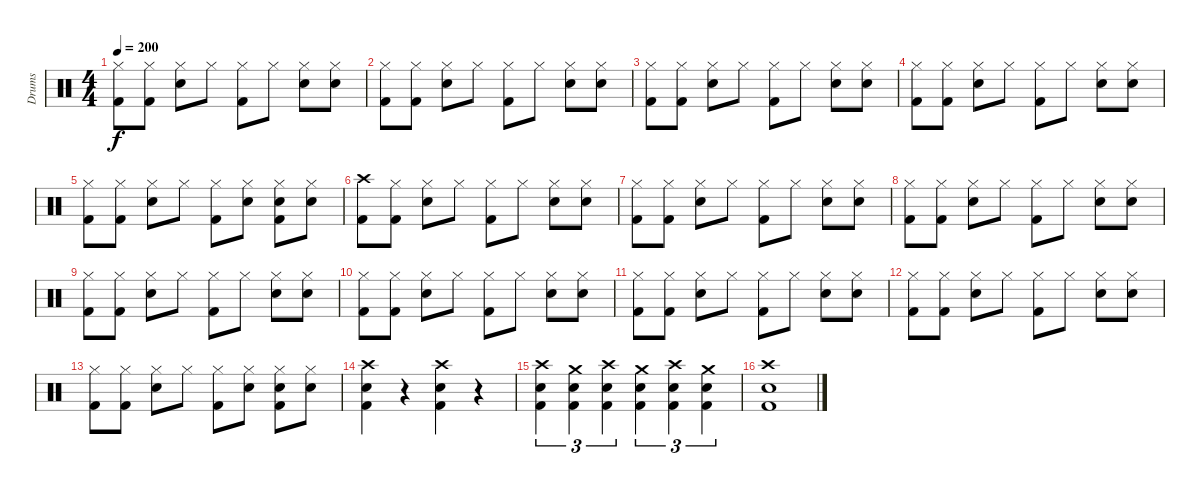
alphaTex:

\track ("Drums" "Drums") {instrument percussion}
\staff {score}
\articulation defaults
\ts (4 4)
\tempo 200
\clef neutral
\ks c
("Hi-Hat (closed)" "Kick (hit) 2").8{dy f} ("Hi-Hat (closed)" "Kick (hit) 2").8 ("Hi-Hat (closed)" "Snare (hit) 2").8 "Hi-Hat (closed)".8 ("Hi-Hat (closed)" "Kick (hit) 2").8 "Hi-Hat (closed)".8 ("Hi-Hat (closed)" "Snare (hit) 2").8 ("Hi-Hat (closed)" "Snare (hit) 2").8 |
("Hi-Hat (closed)" "Kick (hit) 2").8 ("Hi-Hat (closed)" "Kick (hit) 2").8 ("Hi-Hat (closed)" "Snare (hit) 2").8 "Hi-Hat (closed)".8 ("Hi-Hat (closed)" "Kick (hit) 2").8 "Hi-Hat (closed)".8 ("Hi-Hat (closed)" "Snare (hit) 2").8 ("Hi-Hat (closed)" "Snare (hit) 2").8 |
("Hi-Hat (closed)" "Kick (hit) 2").8 ("Hi-Hat (closed)" "Kick (hit) 2").8 ("Hi-Hat (closed)" "Snare (hit) 2").8 "Hi-Hat (closed)".8 ("Hi-Hat (closed)" "Kick (hit) 2").8 "Hi-Hat (closed)".8 ("Hi-Hat (closed)" "Snare (hit) 2").8 ("Hi-Hat (closed)" "Snare (hit) 2").8 |
("Hi-Hat (closed)" "Kick (hit) 2").8 ("Hi-Hat (closed)" "Kick (hit) 2").8 ("Hi-Hat (closed)" "Snare (hit) 2").8 "Hi-Hat (closed)".8 ("Hi-Hat (closed)" "Kick (hit) 2").8 "Hi-Hat (closed)".8 ("Hi-Hat (closed)" "Snare (hit) 2").8 ("Hi-Hat (closed)" "Snare (hit) 2").8 |
("Hi-Hat (closed)" "Kick (hit) 2").8 ("Hi-Hat (closed)" "Kick (hit) 2").8 ("Hi-Hat (closed)" "Snare (hit) 2").8 "Hi-Hat (closed)".8 ("Hi-Hat (closed)" "Kick (hit) 2").8 ("Hi-Hat (closed)" "Snare (hit) 2").8 ("Hi-Hat (closed)" "Snare (hit) 2" "Kick (hit) 2").8 ("Hi-Hat (closed)" "Snare (hit) 2").8 |
("Crash high (hit)" "Kick (hit) 2").8 ("Hi-Hat (closed)" "Kick (hit) 2").8 ("Hi-Hat (closed)" "Snare (hit) 2").8 "Hi-Hat (closed)".8 ("Hi-Hat (closed)" "Kick (hit) 2").8 "Hi-Hat (closed)".8 ("Hi-Hat (closed)" "Snare (hit) 2").8 ("Hi-Hat (closed)" "Snare (hit) 2").8 |
("Hi-Hat (closed)" "Kick (hit) 2").8 ("Hi-Hat (closed)" "Kick (hit) 2").8 ("Hi-Hat (closed)" "Snare (hit) 2").8 "Hi-Hat (closed)".8 ("Hi-Hat (closed)" "Kick (hit) 2").8 "Hi-Hat (closed)".8 ("Hi-Hat (closed)" "Snare (hit) 2").8 ("Hi-Hat (closed)" "Snare (hit) 2").8 |
("Hi-Hat (closed)" "Kick (hit) 2").8 ("Hi-Hat (closed)" "Kick (hit) 2").8 ("Hi-Hat (closed)" "Snare (hit) 2").8 "Hi-Hat (closed)".8 ("Hi-Hat (closed)" "Kick (hit) 2").8 "Hi-Hat (closed)".8 ("Hi-Hat (closed)" "Snare (hit) 2").8 ("Hi-Hat (closed)" "Snare (hit) 2").8 |
("Hi-Hat (closed)" "Kick (hit) 2").8 ("Hi-Hat (closed)" "Kick (hit) 2").8 ("Hi-Hat (closed)" "Snare (hit) 2").8 "Hi-Hat (closed)".8 ("Hi-Hat (closed)" "Kick (hit) 2").8 "Hi-Hat (closed)".8 ("Hi-Hat (closed)" "Snare (hit) 2").8 ("Hi-Hat (closed)" "Snare (hit) 2").8 |
("Hi-Hat (closed)" "Kick (hit) 2").8 ("Hi-Hat (closed)" "Kick (hit) 2").8 ("Hi-Hat (closed)" "Snare (hit) 2").8 "Hi-Hat (closed)".8 ("Hi-Hat (closed)" "Kick (hit) 2").8 "Hi-Hat (closed)".8 ("Hi-Hat (closed)" "Snare (hit) 2").8 ("Hi-Hat (closed)" "Snare (hit) 2").8 |
("Hi-Hat (closed)" "Kick (hit) 2").8 ("Hi-Hat (closed)" "Kick (hit) 2").8 ("Hi-Hat (closed)" "Snare (hit) 2").8 "Hi-Hat (closed)".8 ("Hi-Hat (closed)" "Kick (hit) 2").8 "Hi-Hat (closed)".8 ("Hi-Hat (closed)" "Snare (hit) 2").8 ("Hi-Hat (closed)" "Snare (hit) 2").8 |
("Hi-Hat (closed)" "Kick (hit) 2").8 ("Hi-Hat (closed)" "Kick (hit) 2").8 ("Hi-Hat (closed)" "Snare (hit) 2").8 "Hi-Hat (closed)".8 ("Hi-Hat (closed)" "Kick (hit) 2").8 "Hi-Hat (closed)".8 ("Hi-Hat (closed)" "Snare (hit) 2").8 ("Hi-Hat (closed)" "Snare (hit) 2").8 |
("Hi-Hat (closed)" "Kick (hit) 2").8 ("Hi-Hat (closed)" "Kick (hit) 2").8 ("Hi-Hat (closed)" "Snare (hit) 2").8 "Hi-Hat (closed)".8 ("Hi-Hat (closed)" "Kick (hit) 2").8 ("Hi-Hat (closed)" "Snare (hit) 2").8 ("Hi-Hat (closed)" "Snare (hit) 2" "Kick (hit) 2").8 ("Hi-Hat (closed)" "Snare (hit) 2").8 |
("Crash high (hit)" "Snare (hit) 2" "Kick (hit) 2").4 r.4 ("Crash high (hit)" "Snare (hit) 2" "Kick (hit) 2").4 r.4 |
("Crash high (hit)" "Snare (hit) 2" "Kick (hit) 2").4{tu (3 2)} ("Crash medium (hit)" "Snare (hit) 2" "Kick (hit) 2").4{tu (3 2)} ("Crash high (hit)" "Snare (hit) 2" "Kick (hit) 2").4{tu (3 2)} ("Crash medium (hit)" "Snare (hit) 2" "Kick (hit) 2").4{tu (3 2)} ("Crash high (hit)" "Snare (hit) 2" "Kick (hit) 2").4{tu (3 2)} ("Crash medium (hit)" "Snare (hit) 2" "Kick (hit) 2").4{tu (3 2)} |
("Crash high (hit)" "Snare (hit) 2" "Kick (hit) 2").1
